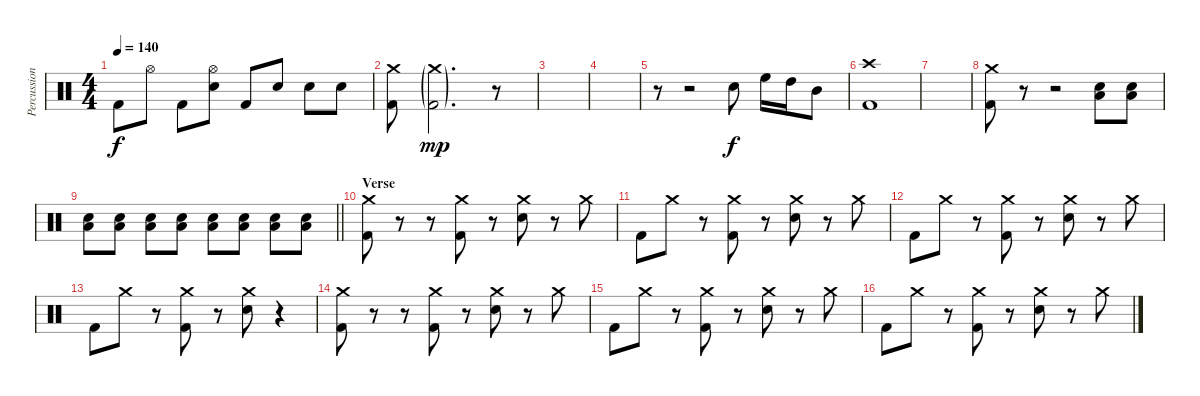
\track ("Percussion" "Percussion") {instrument percussion}
\staff {score}
\articulation defaults
\ts (4 4)
\tempo 140
\clef neutral
\ks c "Kick (hit) 2".8{dy f} "Hi-Hat (open)".8 "Kick (hit) 2".8
("Hi-Hat (open)" "Electric Snare (hit)").8 "Kick (hit) 2".8 "Electric Snare (hit)".8 "Electric Snare (hit)".8 "Electric Snare (hit)".8 |
("Crash medium (hit)" "Kick (hit) 2").8 ("Crash medium (hit)"{g} "Kick (hit) 2"{g}).2{d dy mp} r.8 |
|
|
r.8 r.2 "Electric Snare (hit)".8{dy f} "High Floor Tom (hit)".16 "High Tom (hit)".16 "Mid Tom (hit)".8 |
("Crash high (hit)" "Kick (hit) 2").1 |
|
("Crash medium (hit)" "Kick (hit) 2").8 r.8 r.2 ("Snare (hit) 2" "Low Tom (hit)").8{volume 10} ("Snare (hit) 2" "Low Tom (hit)").8 |
\barLineRight lightlight
("Snare (hit) 2" "Low Tom (hit)").8 ("Snare (hit) 2" "Low Tom (hit)").8 ("Snare (hit) 2" "Low Tom (hit)").8 ("Snare (hit) 2" "Low Tom (hit)").8 ("Snare (hit) 2" "Low Tom (hit)").8 ("Snare (hit) 2" "Low Tom (hit)").8 ("Snare (hit) 2" "Low Tom (hit)").8 ("Snare (hit) 2" "Low Tom (hit)").8 |
\section ("" "Verse")
("Crash medium (hit)" "Kick (hit) 2").8{volume 16} r.8 r.8 ("Crash medium (hit)" "Kick (hit) 2").8 r.8 ("Crash medium (hit)" "Electric Snare (hit)").8 r.8 "Crash medium (hit)".8 |
"Kick (hit) 2".8 "Crash medium (hit)".8 r.8 ("Crash medium (hit)" "Kick (hit) 2").8 r.8 ("Crash medium (hit)" "Electric Snare (hit)").8 r.8 "Crash medium (hit)".8 |
"Kick (hit) 2".8 "Crash medium (hit)".8 r.8 ("Crash medium (hit)" "Kick (hit) 2").8 r.8 ("Crash medium (hit)" "Electric Snare (hit)").8 r.8 "Crash medium (hit)".8 |
"Kick (hit) 2".8 "Crash medium (hit)".8 r.8 ("Crash medium (hit)" "Kick (hit) 2").8 r.8 ("Crash medium (hit)" "Electric Snare (hit)").8 r.4 |
("Crash medium (hit)" "Kick (hit) 2").8 r.8 r.8 ("Crash medium (hit)" "Kick (hit) 2").8 r.8 ("Crash medium (hit)" "Electric Snare (hit)").8 r.8 "Crash medium (hit)".8 |
"Kick (hit) 2".8 "Crash medium (hit)".8 r.8 ("Crash medium (hit)" "Kick (hit) 2").8 r.8 ("Crash medium (hit)" "Electric Snare (hit)").8 r.8 "Crash medium (hit)".8 |
"Kick (hit) 2".8 "Crash medium (hit)".8 r.8 ("Crash medium (hit)" "Kick (hit) 2").8 r.8 ("Crash medium (hit)" "Electric Snare (hit)").8 r.8 "Crash medium (hit)".8
